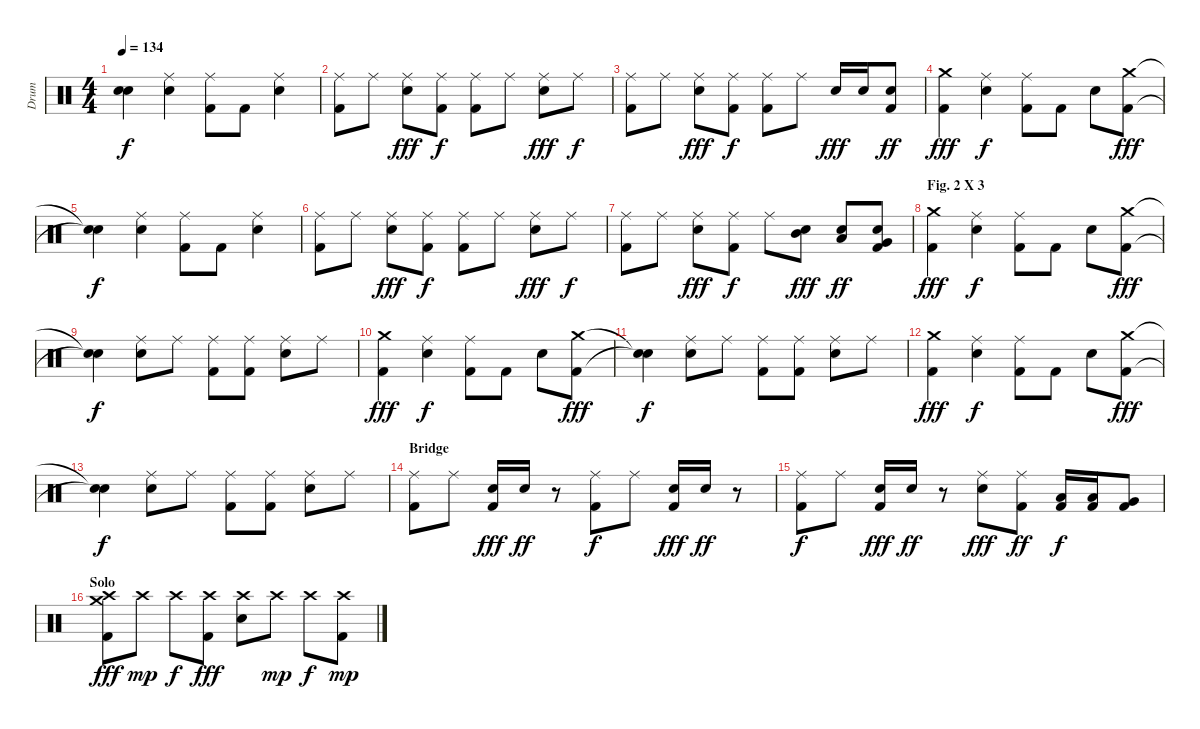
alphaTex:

\track ("Drum" "Drum") {instrument percussion}
\staff {score}
\articulation defaults
\ts (4 4)
\tempo 134
\clef neutral
\ks c
("Snare (hit)"{t} "Snare (hit)"{t}).4{dy f} ("Ride (middle)" "Snare (hit) 2").4 ("Ride (middle)" "Kick (hit) 2").8 "Kick (hit) 2".8 ("Ride (middle)" "Snare (hit) 2").4 |
("Ride (middle)" "Kick (hit) 2").8 "Ride (middle)".8 ("Ride (middle)" "Snare (hit) 2").8{dy fff} ("Ride (middle)" "Kick (hit) 2").8{dy f} ("Ride (middle)" "Kick (hit) 2").8 "Ride (middle)".8 ("Ride (middle)" "Snare (hit) 2").8{dy fff} "Ride (middle)".8{dy f} |
("Ride (middle)" "Kick (hit) 2").8 "Ride (middle)".8 ("Ride (middle)" "Snare (hit) 2").8{dy fff} ("Ride (middle)" "Kick (hit) 2").8{dy f} ("Ride (middle)" "Kick (hit) 2").8 "Ride (middle)".8 "Snare (hit) 2".16{dy fff} "Snare (hit) 2".16 ("Snare (hit) 2" "Kick (hit) 2").8{dy ff} |
("Crash medium (hit)" "Kick (hit) 2").4{dy fff} ("Ride (middle)" "Snare (hit) 2").4{dy f} ("Ride (middle)" "Kick (hit) 2").8 "Kick (hit) 2".8 "Snare (hit) 2".8 ("Crash medium (hit)" "Kick (hit) 2").8{dy fff} |
("Snare (hit)"{t} "Snare (hit)"{t}).4{dy f} ("Ride (middle)" "Snare (hit) 2").4 ("Ride (middle)" "Kick (hit) 2").8 "Kick (hit) 2".8 ("Ride (middle)" "Snare (hit) 2").4 |
("Ride (middle)" "Kick (hit) 2").8 "Ride (middle)".8 ("Ride (middle)" "Snare (hit) 2").8{dy fff} ("Ride (middle)" "Kick (hit) 2").8{dy f} ("Ride (middle)" "Kick (hit) 2").8 "Ride (middle)".8 ("Ride (middle)" "Snare (hit) 2").8{dy fff} "Ride (middle)".8{dy f} |
("Ride (middle)" "Kick (hit) 2").8 "Ride (middle)".8 ("Ride (middle)" "Snare (hit) 2").8{dy fff} ("Ride (middle)" "Kick (hit) 2").8{dy f} "Ride (middle)".8 ("Mid Tom (hit)" "Snare (hit) 2").8{dy fff} ("Low Tom (hit)" "Snare (hit) 2").8{dy ff} ("Very Low Tom (hit)" "Snare (hit) 2" "Kick (hit) 2").8 |
\section ("" "Fig. 2 X 3")
("Crash medium (hit)" "Kick (hit) 2").4{dy fff} ("Ride (middle)" "Snare (hit) 2").4{dy f} ("Ride (middle)" "Kick (hit) 2").8 "Kick (hit) 2".8 "Snare (hit) 2".8 ("Crash medium (hit)" "Kick (hit) 2").8{dy fff} |
("Snare (hit)"{t} "Snare (hit)"{t}).4{dy f} ("Ride (middle)" "Snare (hit) 2").8 "Ride (middle)".8 ("Ride (middle)" "Kick (hit) 2").8 ("Ride (middle)" "Kick (hit) 2").8 ("Ride (middle)" "Snare (hit) 2").8 "Ride (middle)".8 |
("Crash medium (hit)" "Kick (hit) 2").4{dy fff} ("Ride (middle)" "Snare (hit) 2").4{dy f} ("Ride (middle)" "Kick (hit) 2").8 "Kick (hit) 2".8 "Snare (hit) 2".8 ("Crash medium (hit)" "Kick (hit) 2").8{dy fff} |
("Snare (hit)"{t} "Snare (hit)"{t}).4{dy f} ("Ride (middle)" "Snare (hit) 2").8 "Ride (middle)".8 ("Ride (middle)" "Kick (hit) 2").8 ("Ride (middle)" "Kick (hit) 2").8 ("Ride (middle)" "Snare (hit) 2").8 "Ride (middle)".8 |
("Crash medium (hit)" "Kick (hit) 2").4{dy fff} ("Ride (middle)" "Snare (hit) 2").4{dy f} ("Ride (middle)" "Kick (hit) 2").8 "Kick (hit) 2".8 "Snare (hit) 2".8 ("Crash medium (hit)" "Kick (hit) 2").8{dy fff} |
("Snare (hit)"{t} "Snare (hit)"{t}).4{dy f} ("Ride (middle)" "Snare (hit) 2").8 "Ride (middle)".8 ("Ride (middle)" "Kick (hit) 2").8 ("Ride (middle)" "Kick (hit) 2").8 ("Ride (middle)" "Snare (hit) 2").8 "Ride (middle)".8 |
\section ("" "Bridge")
("Ride (middle)" "Kick (hit) 2").8 "Ride (middle)".8 ("Snare (hit) 2" "Kick (hit) 2").16{dy fff} "Snare (hit) 2".16{dy ff} r.8 ("Ride (middle)" "Kick (hit) 2").8{dy f} "Ride (middle)".8 ("Snare (hit) 2" "Kick (hit) 2").16{dy fff} "Snare (hit) 2".16{dy ff} r.8 |
("Ride (middle)" "Kick (hit) 2").8{dy f} "Ride (middle)".8 ("Snare (hit) 2" "Kick (hit) 2").16{dy fff} "Snare (hit) 2".16{dy ff} r.8 ("Ride (middle)" "Snare (hit) 2").8{dy fff} ("Ride (middle)" "Kick (hit) 2").8{dy ff} ("Low Tom (hit)" "Kick (hit) 2").16{dy f} ("Low Tom (hit)" "Kick (hit) 2").16 ("Very Low Tom (hit)" "Kick (hit) 2").8 |
\section ("" "Solo")
("Crash medium (hit)" "Crash high (hit)" "Kick (hit) 2").8{dy fff} "Crash high (hit)".8{dy mp} "Crash high (hit)".8{dy f} ("Crash high (hit)" "Kick (hit) 2").8{dy fff} ("Crash high (hit)" "Snare (hit) 2").8 "Crash high (hit)".8{dy mp} "Crash high (hit)".8{dy f} ("Crash high (hit)" "Kick (hit) 2").8{dy mp}
